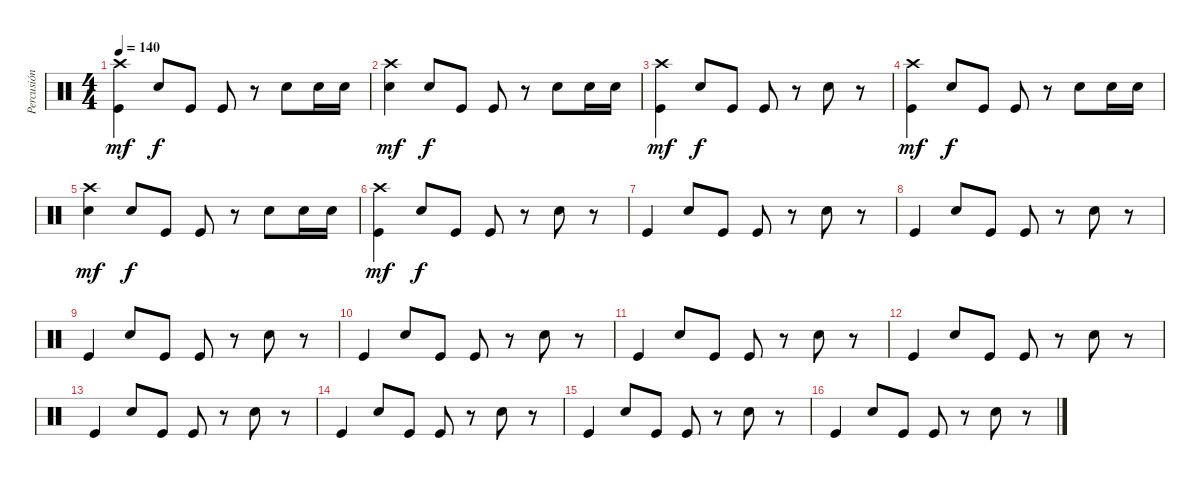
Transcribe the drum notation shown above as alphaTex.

\track ("Percusión" "Percusión") {instrument percussion}
\staff {score}
\articulation defaults
\ts (4 4)
\tempo 140
\clef neutral
\ks c
("Kick (hit)" "Crash high (hit)").4{dy mf} "Snare (hit) 2".8{dy f} "Kick (hit)".8 "Kick (hit)".8 r.8 "Snare (hit) 2".8 "Snare (hit) 2".16 "Snare (hit) 2".16 |
("Snare (hit) 2" "Crash high (hit)").4{dy mf} "Snare (hit) 2".8{dy f} "Kick (hit)".8 "Kick (hit)".8 r.8 "Snare (hit) 2".8 "Snare (hit) 2".16 "Snare (hit) 2".16 |
("Kick (hit)" "Crash high (hit)").4{dy mf} "Snare (hit) 2".8{dy f} "Kick (hit)".8 "Kick (hit)".8 r.8 "Snare (hit) 2".8 r.8 |
("Kick (hit)" "Crash high (hit)").4{dy mf} "Snare (hit) 2".8{dy f} "Kick (hit)".8 "Kick (hit)".8 r.8 "Snare (hit) 2".8 "Snare (hit) 2".16 "Snare (hit) 2".16 |
("Snare (hit) 2" "Crash high (hit)").4{dy mf} "Snare (hit) 2".8{dy f} "Kick (hit)".8 "Kick (hit)".8 r.8 "Snare (hit) 2".8 "Snare (hit) 2".16 "Snare (hit) 2".16 |
("Kick (hit)" "Crash high (hit)").4{dy mf} "Snare (hit) 2".8{dy f} "Kick (hit)".8 "Kick (hit)".8 r.8 "Snare (hit) 2".8 r.8 |
"Kick (hit)".4 "Snare (hit) 2".8 "Kick (hit)".8 "Kick (hit)".8 r.8 "Snare (hit) 2".8 r.8 |
"Kick (hit)".4 "Snare (hit) 2".8 "Kick (hit)".8 "Kick (hit)".8 r.8 "Snare (hit) 2".8 r.8 |
"Kick (hit)".4 "Snare (hit) 2".8 "Kick (hit)".8 "Kick (hit)".8 r.8 "Snare (hit) 2".8 r.8 |
"Kick (hit)".4 "Snare (hit) 2".8 "Kick (hit)".8 "Kick (hit)".8 r.8 "Snare (hit) 2".8 r.8 |
"Kick (hit)".4 "Snare (hit) 2".8 "Kick (hit)".8 "Kick (hit)".8 r.8 "Snare (hit) 2".8 r.8 |
"Kick (hit)".4 "Snare (hit) 2".8 "Kick (hit)".8 "Kick (hit)".8 r.8 "Snare (hit) 2".8 r.8 |
"Kick (hit)".4 "Snare (hit) 2".8 "Kick (hit)".8 "Kick (hit)".8 r.8 "Snare (hit) 2".8 r.8 |
"Kick (hit)".4 "Snare (hit) 2".8 "Kick (hit)".8 "Kick (hit)".8 r.8 "Snare (hit) 2".8 r.8 |
"Kick (hit)".4 "Snare (hit) 2".8 "Kick (hit)".8 "Kick (hit)".8 r.8 "Snare (hit) 2".8 r.8 |
"Kick (hit)".4 "Snare (hit) 2".8 "Kick (hit)".8 "Kick (hit)".8 r.8 "Snare (hit) 2".8 r.8
